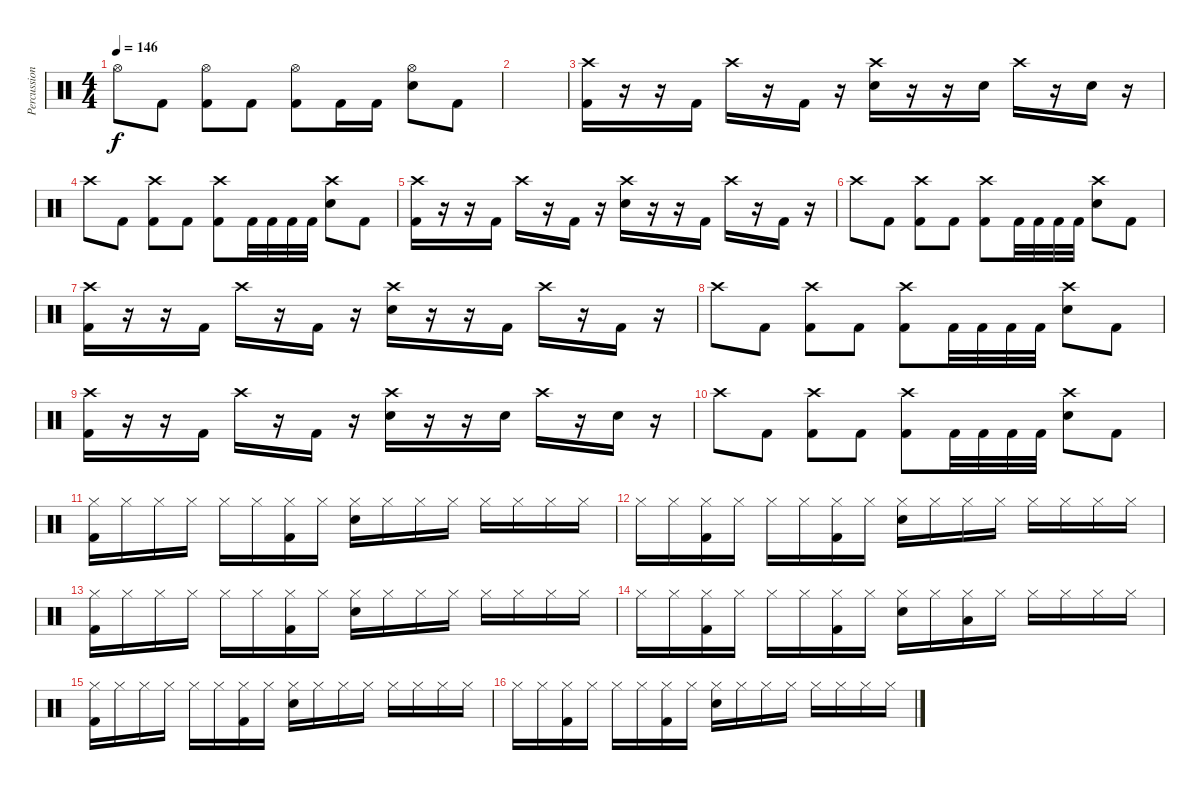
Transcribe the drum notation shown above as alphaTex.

\track ("Percussion" "Percussion") {instrument percussion}
\staff {score}
\articulation defaults
\ts (4 4)
\tempo 146
\clef neutral
\ks c "Hi-Hat (open)".8{dy f} "Kick (hit) 2".8
("Hi-Hat (open)" "Kick (hit) 2").8 "Kick (hit) 2".8 ("Hi-Hat (open)" "Kick (hit) 2").8 "Kick (hit) 2".16 "Kick (hit) 2".16 ("Hi-Hat (open)" "Electric Snare (hit)").8 "Kick (hit) 2".8 |
|
("Crash high (hit)" "Kick (hit) 2").16 r.16 r.16 "Kick (hit) 2".16 "Crash high (hit)".16 r.16 "Kick (hit) 2".16 r.16 ("Crash high (hit)" "Electric Snare (hit)").16 r.16 r.16 "Electric Snare (hit)".16 "Crash high (hit)".16 r.16 "Electric Snare (hit)".16 r.16 |
"Crash high (hit)".8 "Kick (hit) 2".8 ("Crash high (hit)" "Kick (hit) 2").8 "Kick (hit) 2".8 ("Crash high (hit)" "Kick (hit) 2").8 "Kick (hit) 2".32 "Kick (hit) 2".32 "Kick (hit) 2".32 "Kick (hit) 2".32 ("Crash high (hit)" "Electric Snare (hit)").8 "Kick (hit) 2".8 |
("Crash high (hit)" "Kick (hit) 2").16 r.16 r.16 "Kick (hit) 2".16 "Crash high (hit)".16 r.16 "Kick (hit) 2".16 r.16 ("Crash high (hit)" "Electric Snare (hit)").16 r.16 r.16 "Kick (hit) 2".16 "Crash high (hit)".16 r.16 "Kick (hit) 2".16 r.16 |
"Crash high (hit)".8 "Kick (hit) 2".8 ("Crash high (hit)" "Kick (hit) 2").8 "Kick (hit) 2".8 ("Crash high (hit)" "Kick (hit) 2").8 "Kick (hit) 2".32 "Kick (hit) 2".32 "Kick (hit) 2".32 "Kick (hit) 2".32 ("Crash high (hit)" "Electric Snare (hit)").8 "Kick (hit) 2".8 |
("Crash high (hit)" "Kick (hit) 2").16 r.16 r.16 "Kick (hit) 2".16 "Crash high (hit)".16 r.16 "Kick (hit) 2".16 r.16 ("Crash high (hit)" "Electric Snare (hit)").16 r.16 r.16 "Kick (hit) 2".16 "Crash high (hit)".16 r.16 "Kick (hit) 2".16 r.16 |
"Crash high (hit)".8 "Kick (hit) 2".8 ("Crash high (hit)" "Kick (hit) 2").8 "Kick (hit) 2".8 ("Crash high (hit)" "Kick (hit) 2").8 "Kick (hit) 2".32 "Kick (hit) 2".32 "Kick (hit) 2".32 "Kick (hit) 2".32 ("Crash high (hit)" "Electric Snare (hit)").8 "Kick (hit) 2".8 |
("Crash high (hit)" "Kick (hit) 2").16 r.16 r.16 "Kick (hit) 2".16 "Crash high (hit)".16 r.16 "Kick (hit) 2".16 r.16 ("Crash high (hit)" "Electric Snare (hit)").16 r.16 r.16 "Electric Snare (hit)".16 "Crash high (hit)".16 r.16 "Electric Snare (hit)".16 r.16 |
"Crash high (hit)".8 "Kick (hit) 2".8 ("Crash high (hit)" "Kick (hit) 2").8 "Kick (hit) 2".8 ("Crash high (hit)" "Kick (hit) 2").8 "Kick (hit) 2".32 "Kick (hit) 2".32 "Kick (hit) 2".32 "Kick (hit) 2".32 ("Crash high (hit)" "Electric Snare (hit)").8 "Kick (hit) 2".8 |
("Hi-Hat (closed)" "Kick (hit) 2").16 "Hi-Hat (closed)".16 "Hi-Hat (closed)".16 "Hi-Hat (closed)".16 "Hi-Hat (closed)".16 "Hi-Hat (closed)".16 ("Hi-Hat (closed)" "Kick (hit) 2").16 "Hi-Hat (closed)".16 ("Hi-Hat (closed)" "Electric Snare (hit)").16 "Hi-Hat (closed)".16 "Hi-Hat (closed)".16 "Hi-Hat (closed)".16 "Hi-Hat (closed)".16 "Hi-Hat (closed)".16 "Hi-Hat (closed)".16 "Hi-Hat (closed)".16 |
"Hi-Hat (closed)".16 "Hi-Hat (closed)".16 ("Hi-Hat (closed)" "Kick (hit) 2").16 "Hi-Hat (closed)".16 "Hi-Hat (closed)".16 "Hi-Hat (closed)".16 ("Hi-Hat (closed)" "Kick (hit) 2").16 "Hi-Hat (closed)".16 ("Hi-Hat (closed)" "Electric Snare (hit)").16 "Hi-Hat (closed)".16 "Hi-Hat (closed)".16 "Hi-Hat (closed)".16 "Hi-Hat (closed)".16 "Hi-Hat (closed)".16 "Hi-Hat (closed)".16 "Hi-Hat (closed)".16 |
("Hi-Hat (closed)" "Kick (hit) 2").16 "Hi-Hat (closed)".16 "Hi-Hat (closed)".16 "Hi-Hat (closed)".16 "Hi-Hat (closed)".16 "Hi-Hat (closed)".16 ("Hi-Hat (closed)" "Kick (hit) 2").16 "Hi-Hat (closed)".16 ("Hi-Hat (closed)" "Electric Snare (hit)").16 "Hi-Hat (closed)".16 "Hi-Hat (closed)".16 "Hi-Hat (closed)".16 "Hi-Hat (closed)".16 "Hi-Hat (closed)".16 "Hi-Hat (closed)".16 "Hi-Hat (closed)".16 |
"Hi-Hat (closed)".16 "Hi-Hat (closed)".16 ("Hi-Hat (closed)" "Kick (hit) 2").16 "Hi-Hat (closed)".16 "Hi-Hat (closed)".16 "Hi-Hat (closed)".16 ("Hi-Hat (closed)" "Kick (hit) 2").16 "Hi-Hat (closed)".16 ("Hi-Hat (closed)" "Electric Snare (hit)").16 "Hi-Hat (closed)".16 ("Hi-Hat (closed)" "Low Tom (hit)").16 "Hi-Hat (closed)".16 "Hi-Hat (closed)".16 "Hi-Hat (closed)".16 "Hi-Hat (closed)".16 "Hi-Hat (closed)".16 |
("Hi-Hat (closed)" "Kick (hit) 2").16 "Hi-Hat (closed)".16 "Hi-Hat (closed)".16 "Hi-Hat (closed)".16 "Hi-Hat (closed)".16 "Hi-Hat (closed)".16 ("Hi-Hat (closed)" "Kick (hit) 2").16 "Hi-Hat (closed)".16 ("Hi-Hat (closed)" "Electric Snare (hit)").16 "Hi-Hat (closed)".16 "Hi-Hat (closed)".16 "Hi-Hat (closed)".16 "Hi-Hat (closed)".16 "Hi-Hat (closed)".16 "Hi-Hat (closed)".16 "Hi-Hat (closed)".16 |
"Hi-Hat (closed)".16 "Hi-Hat (closed)".16 ("Hi-Hat (closed)" "Kick (hit) 2").16 "Hi-Hat (closed)".16 "Hi-Hat (closed)".16 "Hi-Hat (closed)".16 ("Hi-Hat (closed)" "Kick (hit) 2").16 "Hi-Hat (closed)".16 ("Hi-Hat (closed)" "Electric Snare (hit)").16 "Hi-Hat (closed)".16 "Hi-Hat (closed)".16 "Hi-Hat (closed)".16 "Hi-Hat (closed)".16 "Hi-Hat (closed)".16 "Hi-Hat (closed)".16 "Hi-Hat (closed)".16
